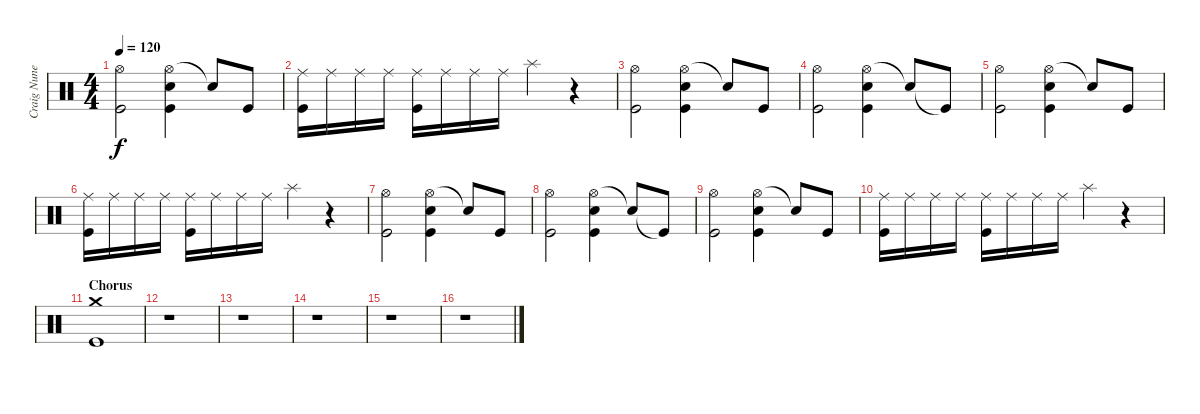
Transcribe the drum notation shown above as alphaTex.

\track ("Craig Nunenmacher" "Craig Nune") {instrument percussion}
\staff {score}
\articulation defaults
\ts (4 4)
\tempo 120
\clef neutral
\ks c
("Hi-Hat (open)" "Kick (hit)").2{dy f} ("Hi-Hat (open)" "Snare (hit) 2" "Kick (hit)").4 "Snare (hit)"{t}.8 "Kick (hit)".8 |
("Ride (middle)" "Kick (hit)").16 "Ride (middle)".16 "Ride (middle)".16 "Ride (middle)".16 ("Ride (middle)" "Kick (hit)").16 "Ride (middle)".16 "Ride (middle)".16 "Ride (middle)".16 "Splash (hit)".4 r.4 |
("Hi-Hat (open)" "Kick (hit)").2 ("Hi-Hat (open)" "Snare (hit) 2" "Kick (hit)").4 "Snare (hit)"{t}.8 "Kick (hit)".8 |
("Hi-Hat (open)" "Kick (hit)").2 ("Hi-Hat (open)" "Snare (hit) 2" "Kick (hit)").4 "Snare (hit)"{t}.8 "Kick (hit)"{t}.8 |
("Hi-Hat (open)" "Kick (hit)").2 ("Hi-Hat (open)" "Snare (hit) 2" "Kick (hit)").4 "Snare (hit)"{t}.8 "Kick (hit)".8 |
("Ride (middle)" "Kick (hit)").16 "Ride (middle)".16 "Ride (middle)".16 "Ride (middle)".16 ("Ride (middle)" "Kick (hit)").16 "Ride (middle)".16 "Ride (middle)".16 "Ride (middle)".16 "Splash (hit)".4 r.4 |
("Hi-Hat (open)" "Kick (hit)").2 ("Hi-Hat (open)" "Snare (hit) 2" "Kick (hit)").4 "Snare (hit)"{t}.8 "Kick (hit)".8 |
("Hi-Hat (open)" "Kick (hit)").2 ("Hi-Hat (open)" "Snare (hit) 2" "Kick (hit)").4 "Snare (hit)"{t}.8 "Kick (hit)"{t}.8 |
("Hi-Hat (open)" "Kick (hit)").2 ("Hi-Hat (open)" "Snare (hit) 2" "Kick (hit)").4 "Snare (hit)"{t}.8 "Kick (hit)".8 |
("Ride (middle)" "Kick (hit)").16 "Ride (middle)".16 "Ride (middle)".16 "Ride (middle)".16 ("Ride (middle)" "Kick (hit)").16 "Ride (middle)".16 "Ride (middle)".16 "Ride (middle)".16 "Splash (hit)".4 r.4 |
\section ("" "Chorus")
("Crash medium (hit)" "Kick (hit)").1 |
r.1 |
r.1 |
r.1 |
r.1 |
r.1
